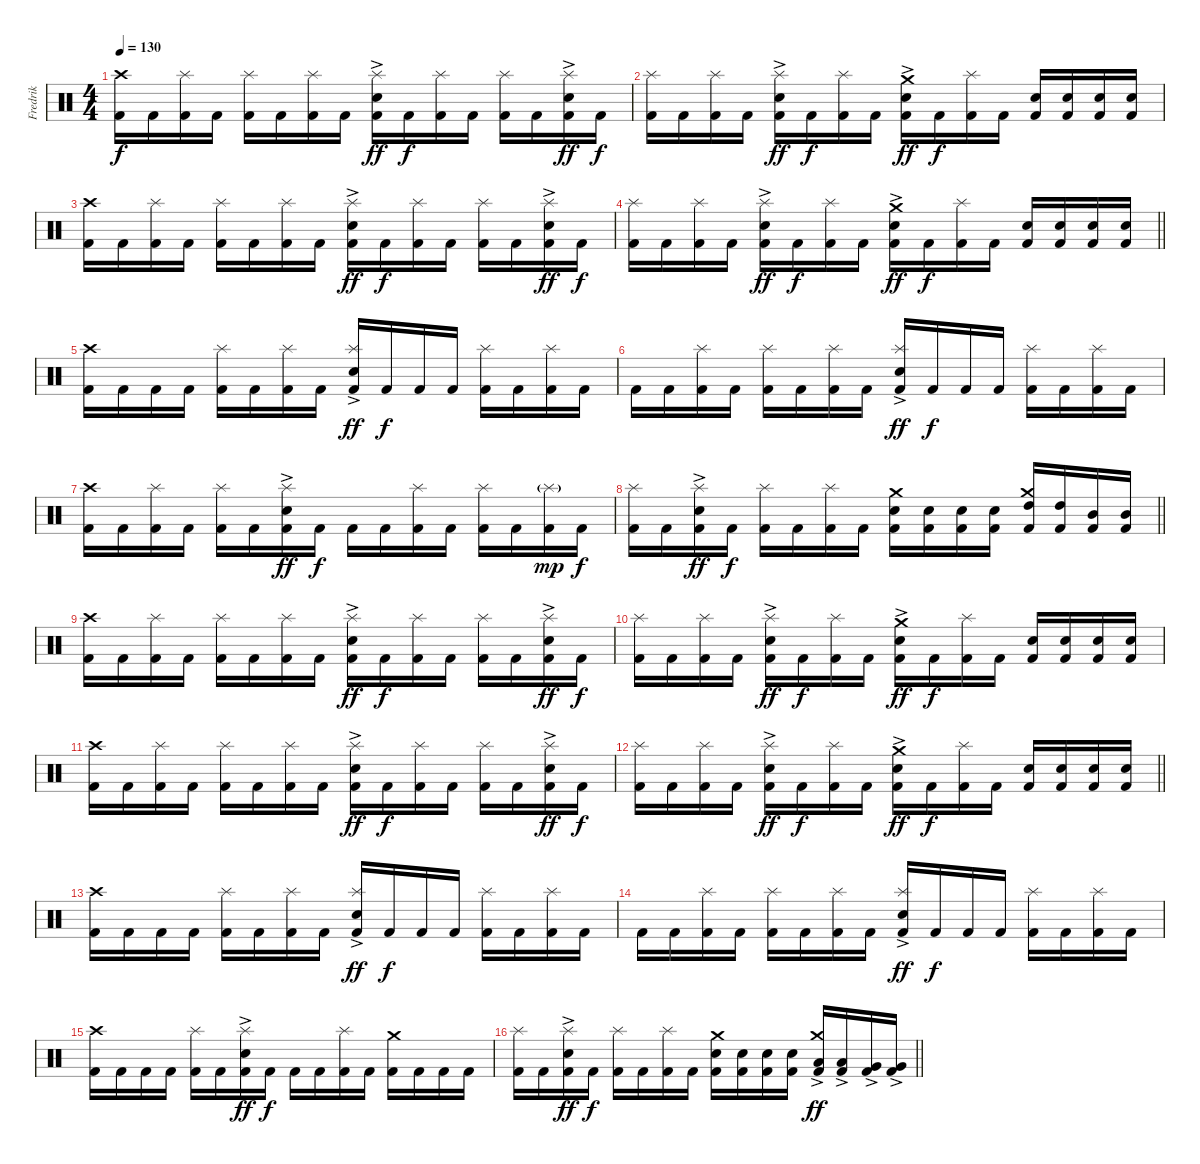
\track ("Fredrik" "Fredrik") {instrument percussion}
\staff {score}
\articulation defaults
\ts (4 4)
\section ("" "")
\tempo 130
\clef neutral
\ks c
("Kick (hit) 2" "Crash high (hit)").16{dy f} "Kick (hit) 2".16 ("Kick (hit) 2" "Splash (hit)").16 "Kick (hit) 2".16 ("Kick (hit) 2" "Splash (hit)").16 "Kick (hit) 2".16 ("Kick (hit) 2" "Splash (hit)").16 "Kick (hit) 2".16 ("Kick (hit) 2" "Snare (hit) 2"{ac} "Splash (hit)").16{dy ff} "Kick (hit) 2".16{dy f} ("Kick (hit) 2" "Splash (hit)").16 "Kick (hit) 2".16 ("Kick (hit) 2" "Splash (hit)").16 "Kick (hit) 2".16 ("Kick (hit) 2" "Snare (hit) 2"{ac} "Splash (hit)").16{dy ff} "Kick (hit) 2".16{dy f} |
("Kick (hit) 2" "Splash (hit)").16 "Kick (hit) 2".16 ("Kick (hit) 2" "Splash (hit)").16 "Kick (hit) 2".16 ("Kick (hit) 2" "Snare (hit) 2"{ac} "Splash (hit)").16{dy ff} "Kick (hit) 2".16{dy f} ("Kick (hit) 2" "Splash (hit)").16 "Kick (hit) 2".16 ("Kick (hit) 2" "Snare (hit) 2"{ac} "Crash medium (hit)").16{dy ff} "Kick (hit) 2".16{dy f} ("Kick (hit) 2" "Splash (hit)").16 "Kick (hit) 2".16 ("Kick (hit) 2" "Snare (hit) 2").16 ("Kick (hit) 2" "Snare (hit) 2").16 ("Kick (hit) 2" "Snare (hit) 2").16 ("Kick (hit) 2" "Snare (hit) 2").16 |
("Kick (hit) 2" "Crash high (hit)").16 "Kick (hit) 2".16 ("Kick (hit) 2" "Splash (hit)").16 "Kick (hit) 2".16 ("Kick (hit) 2" "Splash (hit)").16 "Kick (hit) 2".16 ("Kick (hit) 2" "Splash (hit)").16 "Kick (hit) 2".16 ("Kick (hit) 2" "Snare (hit) 2"{ac} "Splash (hit)").16{dy ff} "Kick (hit) 2".16{dy f} ("Kick (hit) 2" "Splash (hit)").16 "Kick (hit) 2".16 ("Kick (hit) 2" "Splash (hit)").16 "Kick (hit) 2".16 ("Kick (hit) 2" "Snare (hit) 2"{ac} "Splash (hit)").16{dy ff} "Kick (hit) 2".16{dy f} |
\barLineRight lightlight
("Kick (hit) 2" "Splash (hit)").16 "Kick (hit) 2".16 ("Kick (hit) 2" "Splash (hit)").16 "Kick (hit) 2".16 ("Kick (hit) 2" "Snare (hit) 2"{ac} "Splash (hit)").16{dy ff} "Kick (hit) 2".16{dy f} ("Kick (hit) 2" "Splash (hit)").16 "Kick (hit) 2".16 ("Kick (hit) 2" "Snare (hit) 2"{ac} "Crash medium (hit)").16{dy ff} "Kick (hit) 2".16{dy f} ("Kick (hit) 2" "Splash (hit)").16 "Kick (hit) 2".16 ("Kick (hit) 2" "Snare (hit) 2").16 ("Kick (hit) 2" "Snare (hit) 2").16 ("Kick (hit) 2" "Snare (hit) 2").16 ("Kick (hit) 2" "Snare (hit) 2").16 |
\section ("" "")
("Kick (hit) 2" "Crash high (hit)").16 "Kick (hit) 2".16 "Kick (hit) 2".16 "Kick (hit) 2".16 ("Kick (hit) 2" "Splash (hit)").16 "Kick (hit) 2".16 ("Kick (hit) 2" "Splash (hit)").16 "Kick (hit) 2".16 ("Kick (hit) 2" "Snare (hit) 2"{ac} "Splash (hit)").16{dy ff} "Kick (hit) 2".16{dy f} "Kick (hit) 2".16 "Kick (hit) 2".16 ("Kick (hit) 2" "Splash (hit)").16 "Kick (hit) 2".16 ("Kick (hit) 2" "Splash (hit)").16 "Kick (hit) 2".16 |
"Kick (hit) 2".16 "Kick (hit) 2".16 ("Kick (hit) 2" "Splash (hit)").16 "Kick (hit) 2".16 ("Kick (hit) 2" "Splash (hit)").16 "Kick (hit) 2".16 ("Kick (hit) 2" "Splash (hit)").16 "Kick (hit) 2".16 ("Kick (hit) 2" "Snare (hit) 2"{ac} "Splash (hit)").16{dy ff} "Kick (hit) 2".16{dy f} "Kick (hit) 2".16 "Kick (hit) 2".16 ("Kick (hit) 2" "Splash (hit)").16 "Kick (hit) 2".16 ("Kick (hit) 2" "Splash (hit)").16 "Kick (hit) 2".16 |
("Kick (hit) 2" "Crash high (hit)").16 "Kick (hit) 2".16 ("Kick (hit) 2" "Splash (hit)").16 "Kick (hit) 2".16 ("Kick (hit) 2" "Splash (hit)").16 "Kick (hit) 2".16 ("Kick (hit) 2" "Snare (hit) 2"{ac} "Splash (hit)").16{dy ff} "Kick (hit) 2".16{dy f} "Kick (hit) 2".16 "Kick (hit) 2".16 ("Kick (hit) 2" "Splash (hit)").16 "Kick (hit) 2".16 ("Kick (hit) 2" "Splash (hit)").16 "Kick (hit) 2".16 ("Kick (hit) 2" "Splash (hit)"{g}).16{dy mp} "Kick (hit) 2".16{dy f} |
\barLineRight lightlight
("Kick (hit) 2" "Splash (hit)").16 "Kick (hit) 2".16 ("Kick (hit) 2" "Snare (hit) 2"{ac} "Splash (hit)").16{dy ff} "Kick (hit) 2".16{dy f} ("Kick (hit) 2" "Splash (hit)").16 "Kick (hit) 2".16 ("Kick (hit) 2" "Splash (hit)").16 "Kick (hit) 2".16 ("Kick (hit) 2" "Snare (hit) 2" "Crash medium (hit)").16 ("Kick (hit) 2" "Snare (hit) 2").16 ("Kick (hit) 2" "Snare (hit) 2").16 ("Kick (hit) 2" "Snare (hit) 2").16 ("Kick (hit) 2" "High Tom (hit)" "Crash medium (hit)").16 ("Kick (hit) 2" "High Tom (hit)").16 ("Kick (hit) 2" "Mid Tom (hit)").16 ("Kick (hit) 2" "Mid Tom (hit)").16 |
\section ("" "")
("Kick (hit) 2" "Crash high (hit)").16 "Kick (hit) 2".16 ("Kick (hit) 2" "Splash (hit)").16 "Kick (hit) 2".16 ("Kick (hit) 2" "Splash (hit)").16 "Kick (hit) 2".16 ("Kick (hit) 2" "Splash (hit)").16 "Kick (hit) 2".16 ("Kick (hit) 2" "Snare (hit) 2"{ac} "Splash (hit)").16{dy ff} "Kick (hit) 2".16{dy f} ("Kick (hit) 2" "Splash (hit)").16 "Kick (hit) 2".16 ("Kick (hit) 2" "Splash (hit)").16 "Kick (hit) 2".16 ("Kick (hit) 2" "Snare (hit) 2"{ac} "Splash (hit)").16{dy ff} "Kick (hit) 2".16{dy f} |
("Kick (hit) 2" "Splash (hit)").16 "Kick (hit) 2".16 ("Kick (hit) 2" "Splash (hit)").16 "Kick (hit) 2".16 ("Kick (hit) 2" "Snare (hit) 2"{ac} "Splash (hit)").16{dy ff} "Kick (hit) 2".16{dy f} ("Kick (hit) 2" "Splash (hit)").16 "Kick (hit) 2".16 ("Kick (hit) 2" "Snare (hit) 2"{ac} "Crash medium (hit)").16{dy ff} "Kick (hit) 2".16{dy f} ("Kick (hit) 2" "Splash (hit)").16 "Kick (hit) 2".16 ("Kick (hit) 2" "Snare (hit) 2").16 ("Kick (hit) 2" "Snare (hit) 2").16 ("Kick (hit) 2" "Snare (hit) 2").16 ("Kick (hit) 2" "Snare (hit) 2").16 |
("Kick (hit) 2" "Crash high (hit)").16 "Kick (hit) 2".16 ("Kick (hit) 2" "Splash (hit)").16 "Kick (hit) 2".16 ("Kick (hit) 2" "Splash (hit)").16 "Kick (hit) 2".16 ("Kick (hit) 2" "Splash (hit)").16 "Kick (hit) 2".16 ("Kick (hit) 2" "Snare (hit) 2"{ac} "Splash (hit)").16{dy ff} "Kick (hit) 2".16{dy f} ("Kick (hit) 2" "Splash (hit)").16 "Kick (hit) 2".16 ("Kick (hit) 2" "Splash (hit)").16 "Kick (hit) 2".16 ("Kick (hit) 2" "Snare (hit) 2"{ac} "Splash (hit)").16{dy ff} "Kick (hit) 2".16{dy f} |
\barLineRight lightlight
("Kick (hit) 2" "Splash (hit)").16 "Kick (hit) 2".16 ("Kick (hit) 2" "Splash (hit)").16 "Kick (hit) 2".16 ("Kick (hit) 2" "Snare (hit) 2"{ac} "Splash (hit)").16{dy ff} "Kick (hit) 2".16{dy f} ("Kick (hit) 2" "Splash (hit)").16 "Kick (hit) 2".16 ("Kick (hit) 2" "Snare (hit) 2"{ac} "Crash medium (hit)").16{dy ff} "Kick (hit) 2".16{dy f} ("Kick (hit) 2" "Splash (hit)").16 "Kick (hit) 2".16 ("Kick (hit) 2" "Snare (hit) 2").16 ("Kick (hit) 2" "Snare (hit) 2").16 ("Kick (hit) 2" "Snare (hit) 2").16 ("Kick (hit) 2" "Snare (hit) 2").16 |
\section ("" "")
("Kick (hit) 2" "Crash high (hit)").16 "Kick (hit) 2".16 "Kick (hit) 2".16 "Kick (hit) 2".16 ("Kick (hit) 2" "Splash (hit)").16 "Kick (hit) 2".16 ("Kick (hit) 2" "Splash (hit)").16 "Kick (hit) 2".16 ("Kick (hit) 2" "Snare (hit) 2"{ac} "Splash (hit)").16{dy ff} "Kick (hit) 2".16{dy f} "Kick (hit) 2".16 "Kick (hit) 2".16 ("Kick (hit) 2" "Splash (hit)").16 "Kick (hit) 2".16 ("Kick (hit) 2" "Splash (hit)").16 "Kick (hit) 2".16 |
"Kick (hit) 2".16 "Kick (hit) 2".16 ("Kick (hit) 2" "Splash (hit)").16 "Kick (hit) 2".16 ("Kick (hit) 2" "Splash (hit)").16 "Kick (hit) 2".16 ("Kick (hit) 2" "Splash (hit)").16 "Kick (hit) 2".16 ("Kick (hit) 2" "Snare (hit) 2"{ac} "Splash (hit)").16{dy ff} "Kick (hit) 2".16{dy f} "Kick (hit) 2".16 "Kick (hit) 2".16 ("Kick (hit) 2" "Splash (hit)").16 "Kick (hit) 2".16 ("Kick (hit) 2" "Splash (hit)").16 "Kick (hit) 2".16 |
("Kick (hit) 2" "Crash high (hit)").16 "Kick (hit) 2".16 "Kick (hit) 2".16 "Kick (hit) 2".16 ("Kick (hit) 2" "Splash (hit)").16 "Kick (hit) 2".16 ("Kick (hit) 2" "Snare (hit) 2"{ac} "Splash (hit)").16{dy ff} "Kick (hit) 2".16{dy f} "Kick (hit) 2".16 "Kick (hit) 2".16 ("Kick (hit) 2" "Splash (hit)").16 "Kick (hit) 2".16 ("Kick (hit) 2" "Crash medium (hit)").16 "Kick (hit) 2".16 "Kick (hit) 2".16 "Kick (hit) 2".16 |
\barLineRight lightlight
("Kick (hit) 2" "Splash (hit)").16 "Kick (hit) 2".16 ("Kick (hit) 2" "Snare (hit) 2"{ac} "Splash (hit)").16{dy ff} "Kick (hit) 2".16{dy f} ("Kick (hit) 2" "Splash (hit)").16 "Kick (hit) 2".16 ("Kick (hit) 2" "Splash (hit)").16 "Kick (hit) 2".16 ("Kick (hit) 2" "Snare (hit) 2" "Crash medium (hit)").16 ("Kick (hit) 2" "Snare (hit) 2").16 ("Kick (hit) 2" "Snare (hit) 2").16 ("Kick (hit) 2" "Snare (hit) 2").16 ("Kick (hit) 2" "Low Tom (hit)"{ac} "Crash medium (hit)").16{dy ff} ("Kick (hit) 2" "Low Tom (hit)"{ac}).16 ("Kick (hit) 2" "Very Low Tom (hit)"{ac}).16 ("Kick (hit) 2" "Very Low Tom (hit)"{ac}).16
